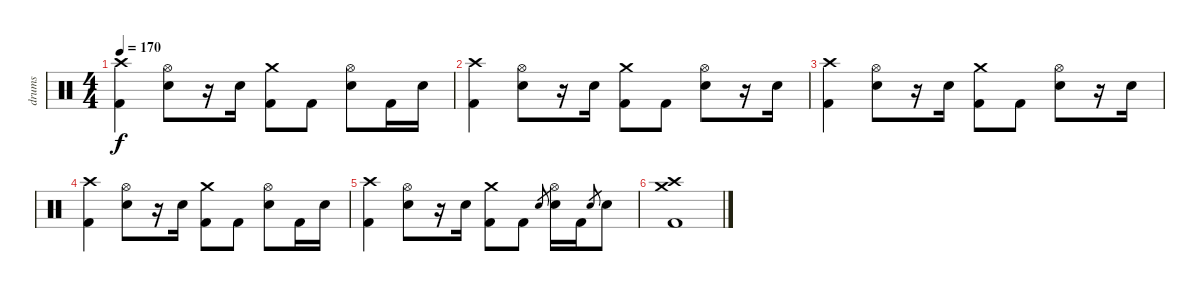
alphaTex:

\track ("drums" "drums") {instrument percussion}
\staff {score}
\articulation defaults
\ts (4 4)
\tempo 170
\clef neutral
\ks c
("Crash high (hit)" "Kick (hit) 2").4{dy f} ("Hi-Hat (open)" "Electric Snare (hit)").8 r.16 "Electric Snare (hit)".16 ("Crash medium (hit)" "Kick (hit) 2").8 "Kick (hit) 2".8 ("Hi-Hat (open)" "Electric Snare (hit)").8 "Kick (hit) 2".16 "Electric Snare (hit)".16 |
("Crash high (hit)" "Kick (hit) 2").4 ("Hi-Hat (open)" "Electric Snare (hit)").8 r.16 "Electric Snare (hit)".16 ("Crash medium (hit)" "Kick (hit) 2").8 "Kick (hit) 2".8 ("Hi-Hat (open)" "Electric Snare (hit)").8 r.16 "Electric Snare (hit)".16 |
("Crash high (hit)" "Kick (hit) 2").4 ("Hi-Hat (open)" "Electric Snare (hit)").8 r.16 "Electric Snare (hit)".16 ("Crash medium (hit)" "Kick (hit) 2").8 "Kick (hit) 2".8 ("Hi-Hat (open)" "Electric Snare (hit)").8 r.16 "Electric Snare (hit)".16 |
("Crash high (hit)" "Kick (hit) 2").4 ("Hi-Hat (open)" "Electric Snare (hit)").8 r.16 "Electric Snare (hit)".16 ("Crash medium (hit)" "Kick (hit) 2").8 "Kick (hit) 2".8 ("Hi-Hat (open)" "Electric Snare (hit)").8 "Kick (hit) 2".16 "Electric Snare (hit)".16 |
("Crash high (hit)" "Kick (hit) 2").4 ("Hi-Hat (open)" "Electric Snare (hit)").8 r.16 "Electric Snare (hit)".16 ("Crash medium (hit)" "Kick (hit) 2").8 "Kick (hit) 2".8 "Electric Snare (hit)".8{gr} ("Hi-Hat (open)" "Electric Snare (hit)").16 "Kick (hit) 2".16 "Electric Snare (hit)".8{gr} "Electric Snare (hit)".8 |
("Crash medium (hit)" "Crash high (hit)" "Kick (hit) 2").1
